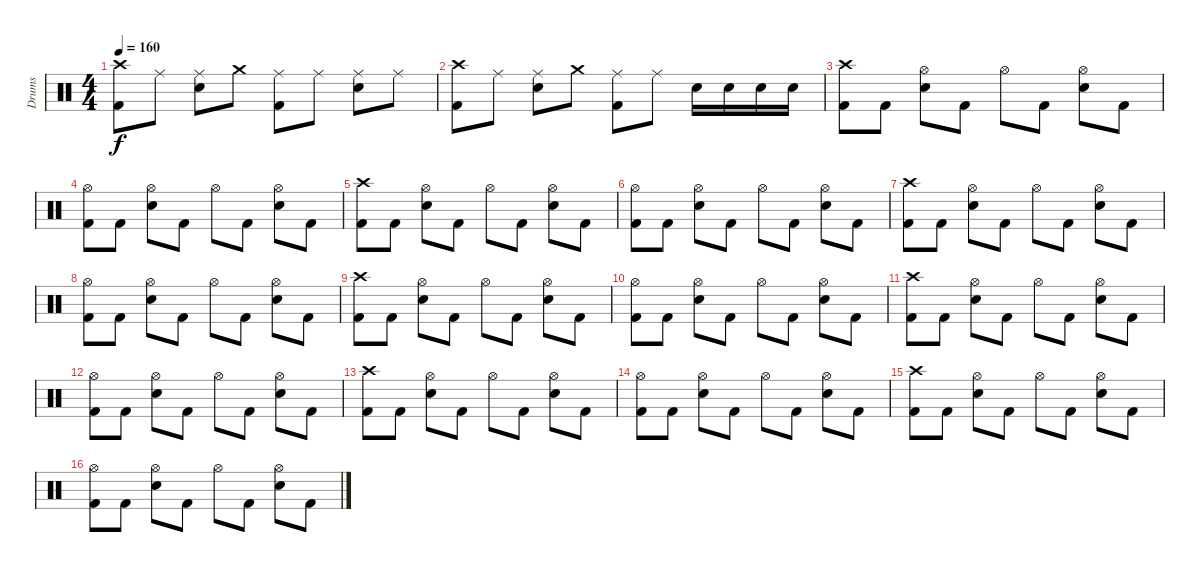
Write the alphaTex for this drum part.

\track ("Drums" "Drums") {instrument percussion}
\staff {score}
\articulation defaults
\ts (4 4)
\tempo 160
\clef neutral
\ks c
("Crash high (hit)" "Kick (hit) 2").8{dy f} "Ride (middle)".8 ("Ride (middle)" "Electric Snare (hit)").8 "Crash medium (hit)".8 ("Ride (middle)" "Kick (hit) 2").8 "Ride (middle)".8 ("Ride (middle)" "Electric Snare (hit)").8 "Ride (middle)".8 |
("Crash high (hit)" "Kick (hit) 2").8 "Ride (middle)".8 ("Ride (middle)" "Electric Snare (hit)").8 "Crash medium (hit)".8 ("Ride (middle)" "Kick (hit) 2").8 "Ride (middle)".8 "Electric Snare (hit)".16 "Electric Snare (hit)".16 "Electric Snare (hit)".16 "Electric Snare (hit)".16 |
\section ("" "")
("Crash high (hit)" "Kick (hit) 2").8 "Kick (hit) 2".8 ("Hi-Hat (open)" "Electric Snare (hit)").8 "Kick (hit) 2".8 "Hi-Hat (open)".8 "Kick (hit) 2".8 ("Hi-Hat (open)" "Electric Snare (hit)").8 "Kick (hit) 2".8 |
("Hi-Hat (open)" "Kick (hit) 2").8 "Kick (hit) 2".8 ("Hi-Hat (open)" "Electric Snare (hit)").8 "Kick (hit) 2".8 "Hi-Hat (open)".8 "Kick (hit) 2".8 ("Hi-Hat (open)" "Electric Snare (hit)").8 "Kick (hit) 2".8 |
("Crash high (hit)" "Kick (hit) 2").8 "Kick (hit) 2".8 ("Hi-Hat (open)" "Electric Snare (hit)").8 "Kick (hit) 2".8 "Hi-Hat (open)".8 "Kick (hit) 2".8 ("Hi-Hat (open)" "Electric Snare (hit)").8 "Kick (hit) 2".8 |
("Hi-Hat (open)" "Kick (hit) 2").8 "Kick (hit) 2".8 ("Hi-Hat (open)" "Electric Snare (hit)").8 "Kick (hit) 2".8 "Hi-Hat (open)".8 "Kick (hit) 2".8 ("Hi-Hat (open)" "Electric Snare (hit)").8 "Kick (hit) 2".8 |
("Crash high (hit)" "Kick (hit) 2").8 "Kick (hit) 2".8 ("Hi-Hat (open)" "Electric Snare (hit)").8 "Kick (hit) 2".8 "Hi-Hat (open)".8 "Kick (hit) 2".8 ("Hi-Hat (open)" "Electric Snare (hit)").8 "Kick (hit) 2".8 |
("Hi-Hat (open)" "Kick (hit) 2").8 "Kick (hit) 2".8 ("Hi-Hat (open)" "Electric Snare (hit)").8 "Kick (hit) 2".8 "Hi-Hat (open)".8 "Kick (hit) 2".8 ("Hi-Hat (open)" "Electric Snare (hit)").8 "Kick (hit) 2".8 |
("Crash high (hit)" "Kick (hit) 2").8 "Kick (hit) 2".8 ("Hi-Hat (open)" "Electric Snare (hit)").8 "Kick (hit) 2".8 "Hi-Hat (open)".8 "Kick (hit) 2".8 ("Hi-Hat (open)" "Electric Snare (hit)").8 "Kick (hit) 2".8 |
("Hi-Hat (open)" "Kick (hit) 2").8 "Kick (hit) 2".8 ("Hi-Hat (open)" "Electric Snare (hit)").8 "Kick (hit) 2".8 "Hi-Hat (open)".8 "Kick (hit) 2".8 ("Hi-Hat (open)" "Electric Snare (hit)").8 "Kick (hit) 2".8 |
("Crash high (hit)" "Kick (hit) 2").8 "Kick (hit) 2".8 ("Hi-Hat (open)" "Electric Snare (hit)").8 "Kick (hit) 2".8 "Hi-Hat (open)".8 "Kick (hit) 2".8 ("Hi-Hat (open)" "Electric Snare (hit)").8 "Kick (hit) 2".8 |
("Hi-Hat (open)" "Kick (hit) 2").8 "Kick (hit) 2".8 ("Hi-Hat (open)" "Electric Snare (hit)").8 "Kick (hit) 2".8 "Hi-Hat (open)".8 "Kick (hit) 2".8 ("Hi-Hat (open)" "Electric Snare (hit)").8 "Kick (hit) 2".8 |
("Crash high (hit)" "Kick (hit) 2").8 "Kick (hit) 2".8 ("Hi-Hat (open)" "Electric Snare (hit)").8 "Kick (hit) 2".8 "Hi-Hat (open)".8 "Kick (hit) 2".8 ("Hi-Hat (open)" "Electric Snare (hit)").8 "Kick (hit) 2".8 |
("Hi-Hat (open)" "Kick (hit) 2").8 "Kick (hit) 2".8 ("Hi-Hat (open)" "Electric Snare (hit)").8 "Kick (hit) 2".8 "Hi-Hat (open)".8 "Kick (hit) 2".8 ("Hi-Hat (open)" "Electric Snare (hit)").8 "Kick (hit) 2".8 |
("Crash high (hit)" "Kick (hit) 2").8 "Kick (hit) 2".8 ("Hi-Hat (open)" "Electric Snare (hit)").8 "Kick (hit) 2".8 "Hi-Hat (open)".8 "Kick (hit) 2".8 ("Hi-Hat (open)" "Electric Snare (hit)").8 "Kick (hit) 2".8 |
("Hi-Hat (open)" "Kick (hit) 2").8 "Kick (hit) 2".8 ("Hi-Hat (open)" "Electric Snare (hit)").8 "Kick (hit) 2".8 "Hi-Hat (open)".8 "Kick (hit) 2".8 ("Hi-Hat (open)" "Electric Snare (hit)").8 "Kick (hit) 2".8
